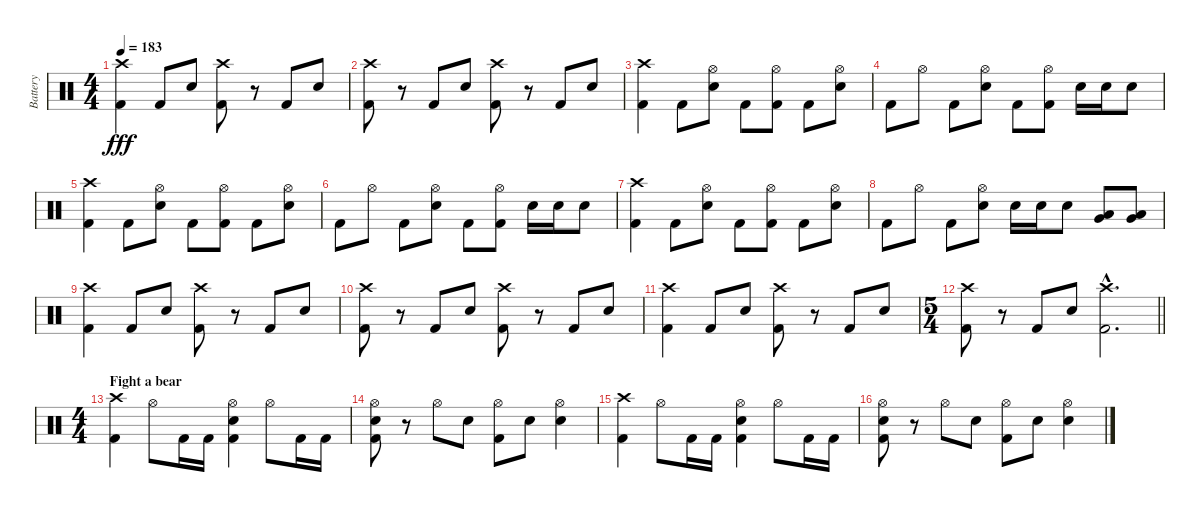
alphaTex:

\track ("Battery" "Battery") {instrument percussion}
\staff {score}
\articulation defaults
\ts (4 4)
\tempo 183
\clef neutral
\ks c
("Crash high (hit)" "Kick (hit) 2").4{dy fff} "Kick (hit) 2".8 "Electric Snare (hit)".8 ("Crash high (hit)" "Kick (hit) 2").8 r.8 "Kick (hit) 2".8 "Electric Snare (hit)".8 |
("Crash high (hit)" "Kick (hit) 2").8 r.8 "Kick (hit) 2".8 "Electric Snare (hit)".8 ("Crash high (hit)" "Kick (hit) 2").8 r.8 "Kick (hit) 2".8 "Electric Snare (hit)".8 |
("Crash high (hit)" "Kick (hit) 2").4 "Kick (hit) 2".8 ("Hi-Hat (open)" "Electric Snare (hit)").8 "Kick (hit) 2".8 ("Hi-Hat (open)" "Kick (hit) 2").8 "Kick (hit) 2".8 ("Hi-Hat (open)" "Electric Snare (hit)").8 |
"Kick (hit) 2".8 "Hi-Hat (open)".8 "Kick (hit) 2".8 ("Hi-Hat (open)" "Electric Snare (hit)").8 "Kick (hit) 2".8 ("Hi-Hat (open)" "Kick (hit) 2").8 "Electric Snare (hit)".16 "Electric Snare (hit)".16 "Electric Snare (hit)".8 |
("Crash high (hit)" "Kick (hit) 2").4 "Kick (hit) 2".8 ("Hi-Hat (open)" "Electric Snare (hit)").8 "Kick (hit) 2".8 ("Hi-Hat (open)" "Kick (hit) 2").8 "Kick (hit) 2".8 ("Hi-Hat (open)" "Electric Snare (hit)").8 |
"Kick (hit) 2".8 "Hi-Hat (open)".8 "Kick (hit) 2".8 ("Hi-Hat (open)" "Electric Snare (hit)").8 "Kick (hit) 2".8 ("Hi-Hat (open)" "Kick (hit) 2").8 "Electric Snare (hit)".16 "Electric Snare (hit)".16 "Electric Snare (hit)".8 |
("Crash high (hit)" "Kick (hit) 2").4 "Kick (hit) 2".8 ("Hi-Hat (open)" "Electric Snare (hit)").8 "Kick (hit) 2".8 ("Hi-Hat (open)" "Kick (hit) 2").8 "Kick (hit) 2".8 ("Hi-Hat (open)" "Electric Snare (hit)").8 |
"Kick (hit) 2".8 "Hi-Hat (open)".8 "Kick (hit) 2".8 ("Hi-Hat (open)" "Electric Snare (hit)").8 "Electric Snare (hit)".16 "Electric Snare (hit)".16 "Electric Snare (hit)".8 ("Low Tom (hit)" "Very Low Tom (hit)").8 ("Very Low Tom (hit)" "Low Floor Tom (hit)").8 |
("Crash high (hit)" "Kick (hit) 2").4 "Kick (hit) 2".8 "Electric Snare (hit)".8 ("Crash high (hit)" "Kick (hit) 2").8 r.8 "Kick (hit) 2".8 "Electric Snare (hit)".8 |
("Crash high (hit)" "Kick (hit) 2").8 r.8 "Kick (hit) 2".8 "Electric Snare (hit)".8 ("Crash high (hit)" "Kick (hit) 2").8 r.8 "Kick (hit) 2".8 "Electric Snare (hit)".8 |
("Crash high (hit)" "Kick (hit) 2").4 "Kick (hit) 2".8 "Electric Snare (hit)".8 ("Crash high (hit)" "Kick (hit) 2").8 r.8 "Kick (hit) 2".8 "Electric Snare (hit)".8 |
\ts (5 4)
\barLineRight lightlight
("Crash high (hit)" "Kick (hit) 2").8 r.8 "Kick (hit) 2".8 "Electric Snare (hit)".8 ("Crash high (hit)"{hac} "Kick (hit) 2"{hac}).2{d} |
\ts (4 4)
\section ("" "Fight a bear")
("Crash high (hit)" "Kick (hit) 2").4 "Hi-Hat (open)".8 "Kick (hit) 2".16 "Kick (hit) 2".16 ("Hi-Hat (open)" "Electric Snare (hit)" "Kick (hit) 2").4 "Hi-Hat (open)".8 "Kick (hit) 2".16 "Kick (hit) 2".16 |
("Hi-Hat (open)" "Electric Snare (hit)" "Kick (hit) 2").8 r.8 "Hi-Hat (open)".8 "Electric Snare (hit)".8 ("Hi-Hat (open)" "Kick (hit) 2").8 "Electric Snare (hit)".8 ("Hi-Hat (open)" "Electric Snare (hit)").4 |
("Crash high (hit)" "Kick (hit) 2").4 "Hi-Hat (open)".8 "Kick (hit) 2".16 "Kick (hit) 2".16 ("Hi-Hat (open)" "Electric Snare (hit)" "Kick (hit) 2").4 "Hi-Hat (open)".8 "Kick (hit) 2".16 "Kick (hit) 2".16 |
("Hi-Hat (open)" "Electric Snare (hit)" "Kick (hit) 2").8 r.8 "Hi-Hat (open)".8 "Electric Snare (hit)".8 ("Hi-Hat (open)" "Kick (hit) 2").8 "Electric Snare (hit)".8 ("Hi-Hat (open)" "Electric Snare (hit)").4
